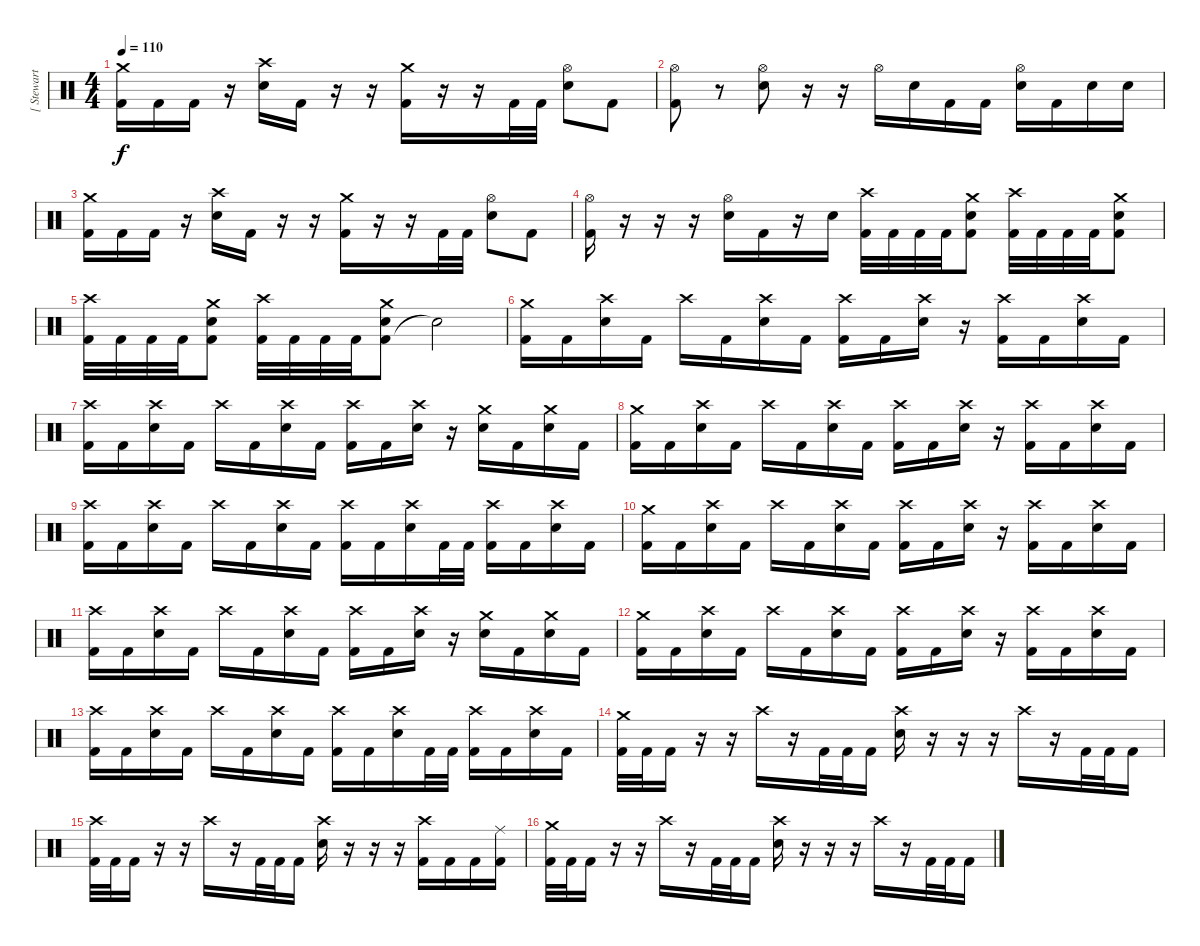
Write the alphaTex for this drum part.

\track ("[ Stewart ]" "[ Stewart ") {instrument percussion}
\staff {score}
\articulation defaults
\ts (4 4)
\tempo 110
\clef neutral
\ks c
("Kick (hit) 2" "Crash medium (hit)").16{dy f} "Kick (hit) 2".16 "Kick (hit) 2".16 r.16 ("Electric Snare (hit)" "Crash high (hit)").16 "Kick (hit) 2".16 r.16 r.16 ("Kick (hit) 2" "Crash medium (hit)").16 r.16 r.16 "Kick (hit) 2".32 "Kick (hit) 2".32 ("Electric Snare (hit)" "Hi-Hat (open)").8 "Kick (hit) 2".8 |
("Kick (hit) 2" "Hi-Hat (open)").8 r.8 ("Electric Snare (hit)" "Hi-Hat (open)").8 r.16 r.16 "Hi-Hat (open)".16 "Electric Snare (hit)".16 "Kick (hit) 2".16 "Kick (hit) 2".16 ("Electric Snare (hit)" "Hi-Hat (open)").16 "Kick (hit) 2".16 "Electric Snare (hit)".16 "Electric Snare (hit)".16 |
("Kick (hit) 2" "Crash medium (hit)").16 "Kick (hit) 2".16 "Kick (hit) 2".16 r.16 ("Electric Snare (hit)" "Crash high (hit)").16 "Kick (hit) 2".16 r.16 r.16 ("Kick (hit) 2" "Crash medium (hit)").16 r.16 r.16 "Kick (hit) 2".32 "Kick (hit) 2".32 ("Electric Snare (hit)" "Hi-Hat (open)").8 "Kick (hit) 2".8 |
("Kick (hit) 2" "Hi-Hat (open)").16 r.16 r.16 r.16 ("Electric Snare (hit)" "Hi-Hat (open)").16 "Kick (hit) 2".16 r.16 "Electric Snare (hit)".16 ("Kick (hit) 2" "Crash high (hit)").32 "Kick (hit) 2".32 "Kick (hit) 2".32 "Kick (hit) 2".32 ("Kick (hit) 2" "Electric Snare (hit)" "Crash medium (hit)").8 ("Kick (hit) 2" "Crash high (hit)").32 "Kick (hit) 2".32 "Kick (hit) 2".32 "Kick (hit) 2".32 ("Kick (hit) 2" "Electric Snare (hit)" "Crash medium (hit)").8 |
("Kick (hit) 2" "Crash high (hit)").32 "Kick (hit) 2".32 "Kick (hit) 2".32 "Kick (hit) 2".32 ("Kick (hit) 2" "Electric Snare (hit)" "Crash medium (hit)").8 ("Kick (hit) 2" "Crash high (hit)").32 "Kick (hit) 2".32 "Kick (hit) 2".32 "Kick (hit) 2".32 ("Kick (hit) 2" "Electric Snare (hit)" "Crash medium (hit)").8 "Snare (hit)"{t}.2 |
("Kick (hit) 2" "Crash medium (hit)").16 "Kick (hit) 2".16 ("Electric Snare (hit)" "Crash high (hit)").16 "Kick (hit) 2".16 "Crash high (hit)".16 "Kick (hit) 2".16 ("Electric Snare (hit)" "Crash high (hit)").16 "Kick (hit) 2".16 ("Kick (hit) 2" "Crash high (hit)").16 "Kick (hit) 2".16 ("Electric Snare (hit)" "Crash high (hit)").16 r.16 ("Kick (hit) 2" "Crash high (hit)").16 "Kick (hit) 2".16 ("Electric Snare (hit)" "Crash high (hit)").16 "Kick (hit) 2".16 |
("Kick (hit) 2" "Crash high (hit)").16 "Kick (hit) 2".16 ("Electric Snare (hit)" "Crash high (hit)").16 "Kick (hit) 2".16 "Crash high (hit)".16 "Kick (hit) 2".16 ("Electric Snare (hit)" "Crash high (hit)").16 "Kick (hit) 2".16 ("Kick (hit) 2" "Crash high (hit)").16 "Kick (hit) 2".16 ("Electric Snare (hit)" "Crash high (hit)").16 r.16 ("Electric Snare (hit)" "Crash medium (hit)").16 "Kick (hit) 2".16 ("Electric Snare (hit)" "Crash medium (hit)").16 "Kick (hit) 2".16 |
("Kick (hit) 2" "Crash medium (hit)").16 "Kick (hit) 2".16 ("Electric Snare (hit)" "Crash high (hit)").16 "Kick (hit) 2".16 "Crash high (hit)".16 "Kick (hit) 2".16 ("Electric Snare (hit)" "Crash high (hit)").16 "Kick (hit) 2".16 ("Kick (hit) 2" "Crash high (hit)").16 "Kick (hit) 2".16 ("Electric Snare (hit)" "Crash high (hit)").16 r.16 ("Kick (hit) 2" "Crash high (hit)").16 "Kick (hit) 2".16 ("Electric Snare (hit)" "Crash high (hit)").16 "Kick (hit) 2".16 |
("Kick (hit) 2" "Crash high (hit)").16 "Kick (hit) 2".16 ("Electric Snare (hit)" "Crash high (hit)").16 "Kick (hit) 2".16 "Crash high (hit)".16 "Kick (hit) 2".16 ("Electric Snare (hit)" "Crash high (hit)").16 "Kick (hit) 2".16 ("Kick (hit) 2" "Crash high (hit)").16 "Kick (hit) 2".16 ("Electric Snare (hit)" "Crash high (hit)").16 "Kick (hit) 2".32 "Kick (hit) 2".32 ("Kick (hit) 2" "Crash high (hit)").16 "Kick (hit) 2".16 ("Electric Snare (hit)" "Crash high (hit)").16 "Kick (hit) 2".16 |
("Kick (hit) 2" "Crash medium (hit)").16 "Kick (hit) 2".16 ("Electric Snare (hit)" "Crash high (hit)").16 "Kick (hit) 2".16 "Crash high (hit)".16 "Kick (hit) 2".16 ("Electric Snare (hit)" "Crash high (hit)").16 "Kick (hit) 2".16 ("Kick (hit) 2" "Crash high (hit)").16 "Kick (hit) 2".16 ("Electric Snare (hit)" "Crash high (hit)").16 r.16 ("Kick (hit) 2" "Crash high (hit)").16 "Kick (hit) 2".16 ("Electric Snare (hit)" "Crash high (hit)").16 "Kick (hit) 2".16 |
("Kick (hit) 2" "Crash high (hit)").16 "Kick (hit) 2".16 ("Electric Snare (hit)" "Crash high (hit)").16 "Kick (hit) 2".16 "Crash high (hit)".16 "Kick (hit) 2".16 ("Electric Snare (hit)" "Crash high (hit)").16 "Kick (hit) 2".16 ("Kick (hit) 2" "Crash high (hit)").16 "Kick (hit) 2".16 ("Electric Snare (hit)" "Crash high (hit)").16 r.16 ("Electric Snare (hit)" "Crash medium (hit)").16 "Kick (hit) 2".16 ("Electric Snare (hit)" "Crash medium (hit)").16 "Kick (hit) 2".16 |
("Kick (hit) 2" "Crash medium (hit)").16 "Kick (hit) 2".16 ("Electric Snare (hit)" "Crash high (hit)").16 "Kick (hit) 2".16 "Crash high (hit)".16 "Kick (hit) 2".16 ("Electric Snare (hit)" "Crash high (hit)").16 "Kick (hit) 2".16 ("Kick (hit) 2" "Crash high (hit)").16 "Kick (hit) 2".16 ("Electric Snare (hit)" "Crash high (hit)").16 r.16 ("Kick (hit) 2" "Crash high (hit)").16 "Kick (hit) 2".16 ("Electric Snare (hit)" "Crash high (hit)").16 "Kick (hit) 2".16 |
("Kick (hit) 2" "Crash high (hit)").16 "Kick (hit) 2".16 ("Electric Snare (hit)" "Crash high (hit)").16 "Kick (hit) 2".16 "Crash high (hit)".16 "Kick (hit) 2".16 ("Electric Snare (hit)" "Crash high (hit)").16 "Kick (hit) 2".16 ("Kick (hit) 2" "Crash high (hit)").16 "Kick (hit) 2".16 ("Electric Snare (hit)" "Crash high (hit)").16 "Kick (hit) 2".32 "Kick (hit) 2".32 ("Kick (hit) 2" "Crash high (hit)").16 "Kick (hit) 2".16 ("Electric Snare (hit)" "Crash high (hit)").16 "Kick (hit) 2".16 |
("Kick (hit) 2" "Crash medium (hit)").32 "Kick (hit) 2".32 "Kick (hit) 2".16 r.16 r.16 "Crash high (hit)".16 r.16 "Kick (hit) 2".32 "Kick (hit) 2".32 "Kick (hit) 2".16 ("Electric Snare (hit)" "Crash high (hit)").16 r.16 r.16 r.16 "Crash high (hit)".16 r.16 "Kick (hit) 2".32 "Kick (hit) 2".32 "Kick (hit) 2".16 |
("Kick (hit) 2" "Crash high (hit)").32 "Kick (hit) 2".32 "Kick (hit) 2".16 r.16 r.16 "Crash high (hit)".16 r.16 "Kick (hit) 2".32 "Kick (hit) 2".32 "Kick (hit) 2".16 ("Electric Snare (hit)" "Crash high (hit)").16 r.16 r.16 r.16 ("Kick (hit) 2" "Crash high (hit)").16 "Kick (hit) 2".16 "Kick (hit) 2".16 ("Kick (hit) 2" "Ride (middle)").16 |
("Kick (hit) 2" "Crash medium (hit)").32 "Kick (hit) 2".32 "Kick (hit) 2".16 r.16 r.16 "Crash high (hit)".16 r.16 "Kick (hit) 2".32 "Kick (hit) 2".32 "Kick (hit) 2".16 ("Electric Snare (hit)" "Crash high (hit)").16 r.16 r.16 r.16 "Crash high (hit)".16 r.16 "Kick (hit) 2".32 "Kick (hit) 2".32 "Kick (hit) 2".16
